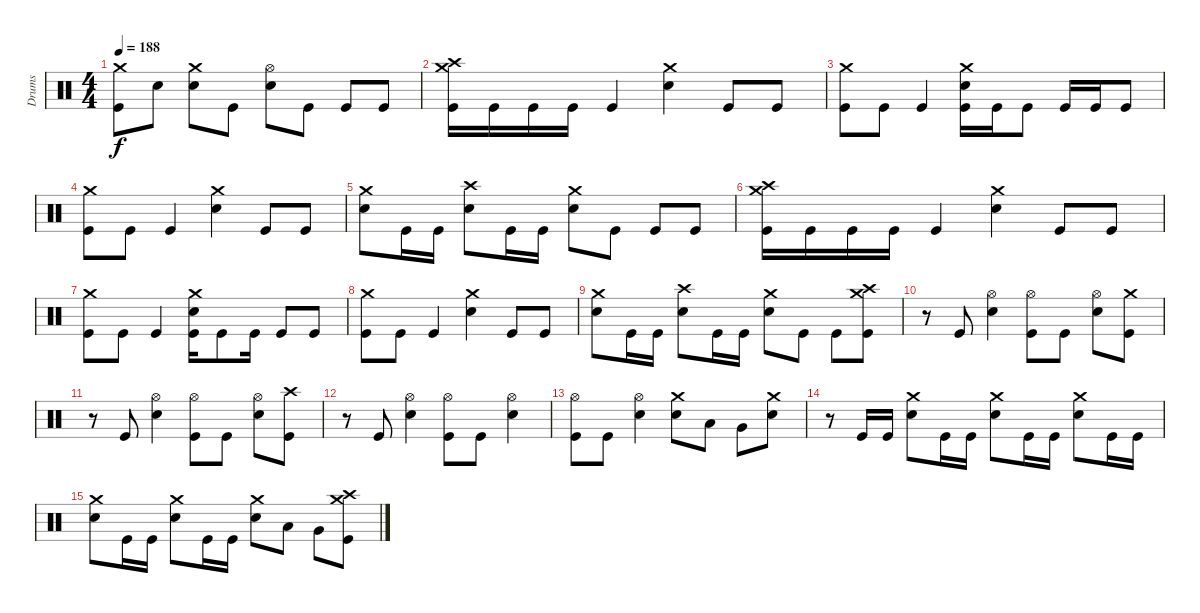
\track ("Drums" "Drums") {instrument percussion}
\staff {score}
\articulation defaults
\ts (4 4)
\tempo 188
\clef neutral
\ks c
("Crash medium (hit)" "Kick (hit)").8{dy f} "Electric Snare (hit)".8 ("Crash medium (hit)" "Electric Snare (hit)").8 "Kick (hit)".8 ("Hi-Hat (open)" "Electric Snare (hit)").8 "Kick (hit)".8 "Kick (hit)".8 "Kick (hit)".8 |
("Crash medium (hit)" "Crash high (hit)" "Kick (hit)").16 "Kick (hit)".16 "Kick (hit)".16 "Kick (hit)".16 "Kick (hit)".4 ("Crash medium (hit)" "Electric Snare (hit)").4 "Kick (hit)".8 "Kick (hit)".8 |
("Crash medium (hit)" "Kick (hit)").8 "Kick (hit)".8 "Kick (hit)".4 ("Crash medium (hit)" "Electric Snare (hit)" "Kick (hit)").16 "Kick (hit)".16 "Kick (hit)".8 "Kick (hit)".16 "Kick (hit)".16 "Kick (hit)".8 |
("Crash medium (hit)" "Kick (hit)").8 "Kick (hit)".8 "Kick (hit)".4 ("Crash medium (hit)" "Electric Snare (hit)").4 "Kick (hit)".8 "Kick (hit)".8 |
("Crash medium (hit)" "Electric Snare (hit)").8 "Kick (hit)".16 "Kick (hit)".16 ("Crash high (hit)" "Electric Snare (hit)").8 "Kick (hit)".16 "Kick (hit)".16 ("Crash medium (hit)" "Electric Snare (hit)").8 "Kick (hit)".8 "Kick (hit)".8 "Kick (hit)".8 |
("Crash medium (hit)" "Crash high (hit)" "Kick (hit)").16 "Kick (hit)".16 "Kick (hit)".16 "Kick (hit)".16 "Kick (hit)".4 ("Crash medium (hit)" "Electric Snare (hit)").4 "Kick (hit)".8 "Kick (hit)".8 |
("Crash medium (hit)" "Kick (hit)").8 "Kick (hit)".8 "Kick (hit)".4 ("Crash medium (hit)" "Electric Snare (hit)" "Kick (hit)").16 "Kick (hit)".8 "Kick (hit)".16 "Kick (hit)".8 "Kick (hit)".8 |
("Crash medium (hit)" "Kick (hit)").8 "Kick (hit)".8 "Kick (hit)".4 ("Crash medium (hit)" "Electric Snare (hit)").4 "Kick (hit)".8 "Kick (hit)".8 |
("Crash medium (hit)" "Electric Snare (hit)").8 "Kick (hit)".16 "Kick (hit)".16 ("Crash high (hit)" "Electric Snare (hit)").8 "Kick (hit)".16 "Kick (hit)".16 ("Crash medium (hit)" "Electric Snare (hit)").8 "Kick (hit)".8 "Kick (hit)".8 ("Crash medium (hit)" "Crash high (hit)" "Kick (hit)").8 |
r.8 "Kick (hit)".8 ("Hi-Hat (open)" "Electric Snare (hit)").4 ("Hi-Hat (open)" "Kick (hit)").8 "Kick (hit)".8 ("Hi-Hat (open)" "Electric Snare (hit)").8 ("Crash medium (hit)" "Kick (hit)").8 |
r.8 "Kick (hit)".8 ("Hi-Hat (open)" "Electric Snare (hit)").4 ("Hi-Hat (open)" "Kick (hit)").8 "Kick (hit)".8 ("Hi-Hat (open)" "Electric Snare (hit)").8 ("Crash high (hit)" "Kick (hit)").8 |
r.8 "Kick (hit)".8 ("Hi-Hat (open)" "Electric Snare (hit)").4 ("Hi-Hat (open)" "Kick (hit)").8 "Kick (hit)".8 ("Hi-Hat (open)" "Electric Snare (hit)").4 |
("Hi-Hat (open)" "Kick (hit)").8 "Kick (hit)".8 ("Hi-Hat (open)" "Electric Snare (hit)").4 ("Crash medium (hit)" "Electric Snare (hit)").8 "Low Tom (hit)".8 "Very Low Tom (hit)".8 ("Crash medium (hit)" "Electric Snare (hit)").8 |
r.8 "Kick (hit)".16 "Kick (hit)".16 ("Crash medium (hit)" "Electric Snare (hit)").8 "Kick (hit)".16 "Kick (hit)".16 ("Crash medium (hit)" "Electric Snare (hit)").8 "Kick (hit)".16 "Kick (hit)".16 ("Crash medium (hit)" "Electric Snare (hit)").8 "Kick (hit)".16 "Kick (hit)".16 |
("Crash medium (hit)" "Electric Snare (hit)").8 "Kick (hit)".16 "Kick (hit)".16 ("Crash medium (hit)" "Electric Snare (hit)").8 "Kick (hit)".16 "Kick (hit)".16 ("Crash medium (hit)" "Electric Snare (hit)").8 "Low Tom (hit)".8 "Very Low Tom (hit)".8 ("Crash medium (hit)" "Crash high (hit)" "Kick (hit)").8
